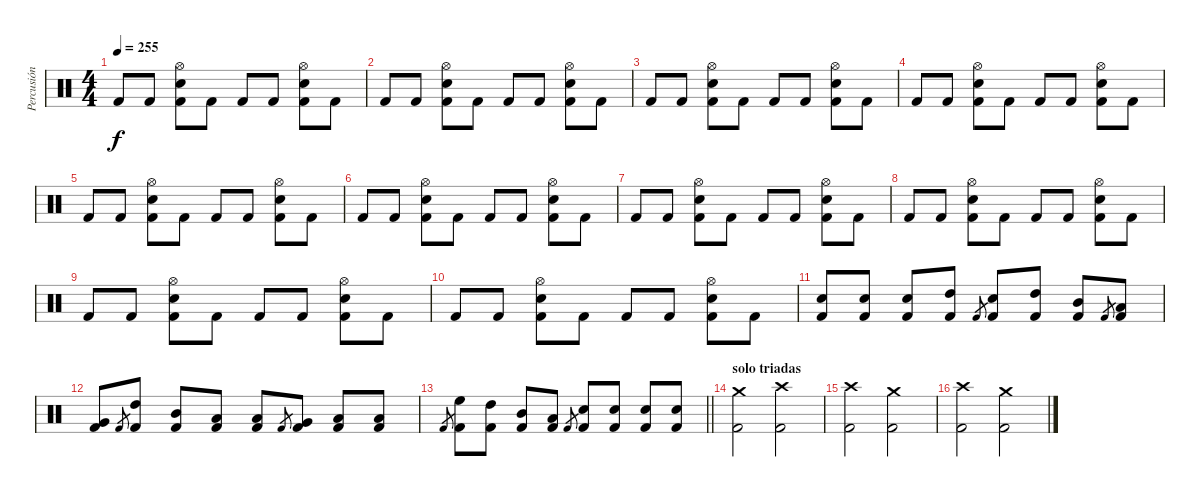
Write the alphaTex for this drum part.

\track ("Percusión" "Percusión") {instrument percussion}
\staff {score}
\articulation defaults
\ts (4 4)
\tempo 255
\clef neutral
\ks c "Kick (hit) 2".8{dy f} "Kick (hit) 2".8
("Kick (hit) 2" "Electric Snare (hit)" "Hi-Hat (open)").8 "Kick (hit) 2".8 "Kick (hit) 2".8 "Kick (hit) 2".8 ("Kick (hit) 2" "Electric Snare (hit)" "Hi-Hat (open)").8 "Kick (hit) 2".8 |
"Kick (hit) 2".8 "Kick (hit) 2".8 ("Kick (hit) 2" "Electric Snare (hit)" "Hi-Hat (open)").8 "Kick (hit) 2".8 "Kick (hit) 2".8 "Kick (hit) 2".8 ("Kick (hit) 2" "Electric Snare (hit)" "Hi-Hat (open)").8 "Kick (hit) 2".8 |
"Kick (hit) 2".8 "Kick (hit) 2".8 ("Kick (hit) 2" "Electric Snare (hit)" "Hi-Hat (open)").8 "Kick (hit) 2".8 "Kick (hit) 2".8 "Kick (hit) 2".8 ("Kick (hit) 2" "Electric Snare (hit)" "Hi-Hat (open)").8 "Kick (hit) 2".8 |
"Kick (hit) 2".8 "Kick (hit) 2".8 ("Kick (hit) 2" "Electric Snare (hit)" "Hi-Hat (open)").8 "Kick (hit) 2".8 "Kick (hit) 2".8 "Kick (hit) 2".8 ("Kick (hit) 2" "Electric Snare (hit)" "Hi-Hat (open)").8 "Kick (hit) 2".8 |
"Kick (hit) 2".8 "Kick (hit) 2".8 ("Kick (hit) 2" "Electric Snare (hit)" "Hi-Hat (open)").8 "Kick (hit) 2".8 "Kick (hit) 2".8 "Kick (hit) 2".8 ("Kick (hit) 2" "Electric Snare (hit)" "Hi-Hat (open)").8 "Kick (hit) 2".8 |
"Kick (hit) 2".8 "Kick (hit) 2".8 ("Kick (hit) 2" "Electric Snare (hit)" "Hi-Hat (open)").8 "Kick (hit) 2".8 "Kick (hit) 2".8 "Kick (hit) 2".8 ("Kick (hit) 2" "Electric Snare (hit)" "Hi-Hat (open)").8 "Kick (hit) 2".8 |
"Kick (hit) 2".8 "Kick (hit) 2".8 ("Kick (hit) 2" "Electric Snare (hit)" "Hi-Hat (open)").8 "Kick (hit) 2".8 "Kick (hit) 2".8 "Kick (hit) 2".8 ("Kick (hit) 2" "Electric Snare (hit)" "Hi-Hat (open)").8 "Kick (hit) 2".8 |
"Kick (hit) 2".8 "Kick (hit) 2".8 ("Kick (hit) 2" "Electric Snare (hit)" "Hi-Hat (open)").8 "Kick (hit) 2".8 "Kick (hit) 2".8 "Kick (hit) 2".8 ("Kick (hit) 2" "Electric Snare (hit)" "Hi-Hat (open)").8 "Kick (hit) 2".8 |
"Kick (hit) 2".8 "Kick (hit) 2".8 ("Kick (hit) 2" "Electric Snare (hit)" "Hi-Hat (open)").8 "Kick (hit) 2".8 "Kick (hit) 2".8 "Kick (hit) 2".8 ("Kick (hit) 2" "Electric Snare (hit)" "Hi-Hat (open)").8 "Kick (hit) 2".8 |
"Kick (hit) 2".8 "Kick (hit) 2".8 ("Kick (hit) 2" "Electric Snare (hit)" "Hi-Hat (open)").8 "Kick (hit) 2".8 "Kick (hit) 2".8 "Kick (hit) 2".8 ("Kick (hit) 2" "Electric Snare (hit)" "Hi-Hat (open)").8 "Kick (hit) 2".8 |
("Kick (hit) 2" "Electric Snare (hit)").8 ("Kick (hit) 2" "Electric Snare (hit)").8 ("Kick (hit) 2" "Electric Snare (hit)").8 ("Kick (hit) 2" "High Tom (hit)").8 "Kick (hit) 2".8{gr} ("Kick (hit) 2" "Electric Snare (hit)").8 ("Kick (hit) 2" "High Tom (hit)").8 ("Kick (hit) 2" "Mid Tom (hit)").8 "Kick (hit) 2".8{gr} ("Kick (hit) 2" "Low Tom (hit)").8 |
("Kick (hit) 2" "Very Low Tom (hit)").8 "Kick (hit) 2".8{gr} ("Kick (hit) 2" "High Tom (hit)").8 ("Kick (hit) 2" "Mid Tom (hit)").8 ("Kick (hit) 2" "Low Tom (hit)").8 ("Kick (hit) 2" "Low Tom (hit)").8 "Kick (hit) 2".8{gr} ("Kick (hit) 2" "Very Low Tom (hit)").8 ("Kick (hit) 2" "Low Floor Tom (hit)").8 ("Kick (hit) 2" "Low Floor Tom (hit)").8 |
\barLineRight lightlight "Kick (hit) 2".8{gr}
("Kick (hit) 2" "High Floor Tom (hit)").8 ("Kick (hit) 2" "High Tom (hit)").8 ("Kick (hit) 2" "Mid Tom (hit)").8 ("Kick (hit) 2" "Low Tom (hit)").8 "Kick (hit) 2".8{gr} ("Kick (hit) 2" "Electric Snare (hit)").8 ("Kick (hit) 2" "Electric Snare (hit)").8 ("Kick (hit) 2" "Electric Snare (hit)").8 ("Kick (hit) 2" "Electric Snare (hit)").8 |
\section ("" "solo triadas")
("Kick (hit) 2" "Crash medium (hit)").2 ("Kick (hit) 2" "Crash high (hit)").2 |
("Kick (hit) 2" "Crash high (hit)").2 ("Kick (hit) 2" "Crash medium (hit)").2 |
("Kick (hit) 2" "Crash high (hit)").2 ("Kick (hit) 2" "Crash medium (hit)").2
